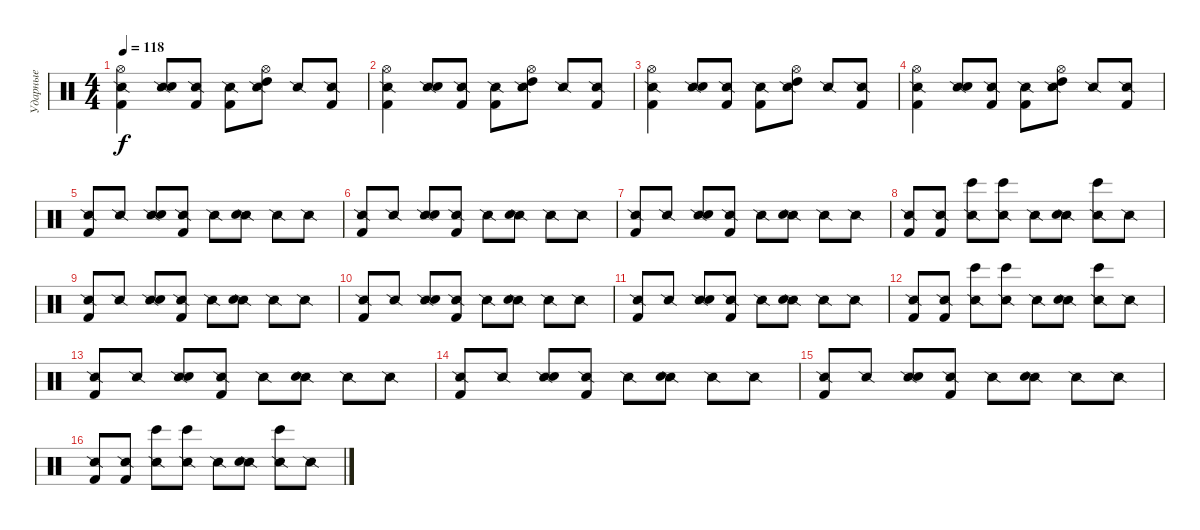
\track ("Ударные" "Ударные") {solo instrument percussion}
\staff {score}
\articulation defaults
\ts (4 4)
\tempo 118
\clef neutral
\ks c
("Hi-Hat (open)" "Snare (side stick) 2" "Kick (hit) 2").4{dy f} ("Snare (side stick) 2" "Electric Snare (hit)").8 ("Snare (side stick) 2" "Kick (hit) 2").8 ("Snare (side stick) 2" "Kick (hit) 2").8 ("Hi-Hat (open)" "Snare (side stick) 2" "High Tom (hit)").8 "Snare (side stick) 2".8 ("Snare (side stick) 2" "Kick (hit) 2").8 |
("Hi-Hat (open)" "Snare (side stick) 2" "Kick (hit) 2").4 ("Snare (side stick) 2" "Electric Snare (hit)").8 ("Snare (side stick) 2" "Kick (hit) 2").8 ("Snare (side stick) 2" "Kick (hit) 2").8 ("Hi-Hat (open)" "Snare (side stick) 2" "High Tom (hit)").8 "Snare (side stick) 2".8 ("Snare (side stick) 2" "Kick (hit) 2").8 |
("Hi-Hat (open)" "Snare (side stick) 2" "Kick (hit) 2").4 ("Snare (side stick) 2" "Electric Snare (hit)").8 ("Snare (side stick) 2" "Kick (hit) 2").8 ("Snare (side stick) 2" "Kick (hit) 2").8 ("Hi-Hat (open)" "Snare (side stick) 2" "High Tom (hit)").8 "Snare (side stick) 2".8 ("Snare (side stick) 2" "Kick (hit) 2").8 |
("Hi-Hat (open)" "Snare (side stick) 2" "Kick (hit) 2").4 ("Snare (side stick) 2" "Electric Snare (hit)").8 ("Snare (side stick) 2" "Kick (hit) 2").8 ("Snare (side stick) 2" "Kick (hit) 2").8 ("Hi-Hat (open)" "Snare (side stick) 2" "High Tom (hit)").8 "Snare (side stick) 2".8 ("Snare (side stick) 2" "Kick (hit) 2").8 |
("Snare (side stick) 2" "Kick (hit) 2").8 "Snare (side stick) 2".8 ("Snare (side stick) 2" "Electric Snare (hit)").8 ("Snare (side stick) 2" "Kick (hit) 2").8 "Snare (side stick) 2".8 ("Snare (side stick) 2" "Electric Snare (hit)").8 "Snare (side stick) 2".8 "Snare (side stick) 2".8 |
("Snare (side stick) 2" "Kick (hit) 2").8 "Snare (side stick) 2".8 ("Snare (side stick) 2" "Electric Snare (hit)").8 ("Snare (side stick) 2" "Kick (hit) 2").8 "Snare (side stick) 2".8 ("Snare (side stick) 2" "Electric Snare (hit)").8 "Snare (side stick) 2".8 "Snare (side stick) 2".8 |
("Snare (side stick) 2" "Kick (hit) 2").8 "Snare (side stick) 2".8 ("Snare (side stick) 2" "Electric Snare (hit)").8 ("Snare (side stick) 2" "Kick (hit) 2").8 "Snare (side stick) 2".8 ("Snare (side stick) 2" "Electric Snare (hit)").8 "Snare (side stick) 2".8 "Snare (side stick) 2".8 |
("Snare (side stick) 2" "Kick (hit) 2").8 ("Snare (side stick) 2" "Kick (hit) 2").8 ("Snare (side stick) 2" "Bongo High (hit)").8 ("Snare (side stick) 2" "Bongo High (hit)").8 "Snare (side stick) 2".8 ("Snare (side stick) 2" "Electric Snare (hit)").8 ("Snare (side stick) 2" "Bongo High (hit)").8 "Snare (side stick) 2".8 |
("Snare (side stick) 2" "Kick (hit) 2").8 "Snare (side stick) 2".8 ("Snare (side stick) 2" "Electric Snare (hit)").8 ("Snare (side stick) 2" "Kick (hit) 2").8 "Snare (side stick) 2".8 ("Snare (side stick) 2" "Electric Snare (hit)").8 "Snare (side stick) 2".8 "Snare (side stick) 2".8 |
("Snare (side stick) 2" "Kick (hit) 2").8 "Snare (side stick) 2".8 ("Snare (side stick) 2" "Electric Snare (hit)").8 ("Snare (side stick) 2" "Kick (hit) 2").8 "Snare (side stick) 2".8 ("Snare (side stick) 2" "Electric Snare (hit)").8 "Snare (side stick) 2".8 "Snare (side stick) 2".8 |
("Snare (side stick) 2" "Kick (hit) 2").8 "Snare (side stick) 2".8 ("Snare (side stick) 2" "Electric Snare (hit)").8 ("Snare (side stick) 2" "Kick (hit) 2").8 "Snare (side stick) 2".8 ("Snare (side stick) 2" "Electric Snare (hit)").8 "Snare (side stick) 2".8 "Snare (side stick) 2".8 |
("Snare (side stick) 2" "Kick (hit) 2").8 ("Snare (side stick) 2" "Kick (hit) 2").8 ("Snare (side stick) 2" "Bongo High (hit)").8 ("Snare (side stick) 2" "Bongo High (hit)").8 "Snare (side stick) 2".8 ("Snare (side stick) 2" "Electric Snare (hit)").8 ("Snare (side stick) 2" "Bongo High (hit)").8 "Snare (side stick) 2".8 |
("Snare (side stick) 2" "Kick (hit) 2").8 "Snare (side stick) 2".8 ("Snare (side stick) 2" "Electric Snare (hit)").8 ("Snare (side stick) 2" "Kick (hit) 2").8 "Snare (side stick) 2".8 ("Snare (side stick) 2" "Electric Snare (hit)").8 "Snare (side stick) 2".8 "Snare (side stick) 2".8 |
("Snare (side stick) 2" "Kick (hit) 2").8 "Snare (side stick) 2".8 ("Snare (side stick) 2" "Electric Snare (hit)").8 ("Snare (side stick) 2" "Kick (hit) 2").8 "Snare (side stick) 2".8 ("Snare (side stick) 2" "Electric Snare (hit)").8 "Snare (side stick) 2".8 "Snare (side stick) 2".8 |
("Snare (side stick) 2" "Kick (hit) 2").8 "Snare (side stick) 2".8 ("Snare (side stick) 2" "Electric Snare (hit)").8 ("Snare (side stick) 2" "Kick (hit) 2").8 "Snare (side stick) 2".8 ("Snare (side stick) 2" "Electric Snare (hit)").8 "Snare (side stick) 2".8 "Snare (side stick) 2".8 |
("Snare (side stick) 2" "Kick (hit) 2").8 ("Snare (side stick) 2" "Kick (hit) 2").8 ("Snare (side stick) 2" "Bongo High (hit)").8 ("Snare (side stick) 2" "Bongo High (hit)").8 "Snare (side stick) 2".8 ("Snare (side stick) 2" "Electric Snare (hit)").8 ("Snare (side stick) 2" "Bongo High (hit)").8 "Snare (side stick) 2".8
